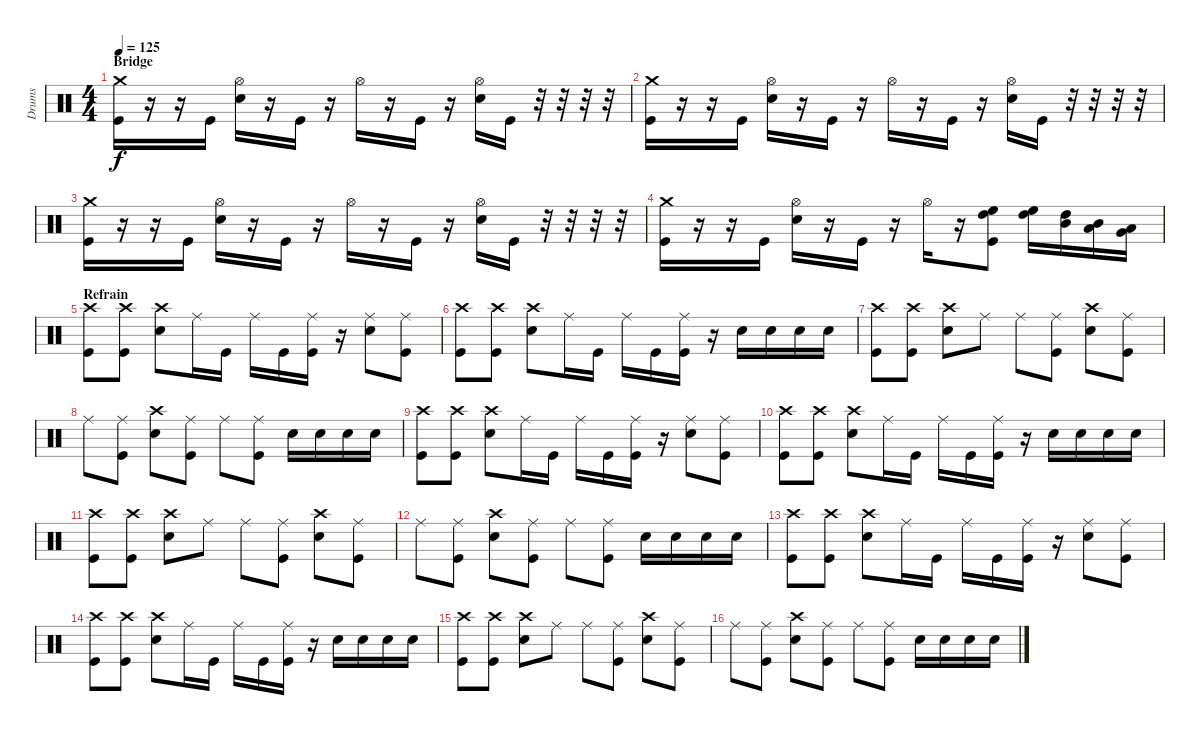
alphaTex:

\track ("Drums" "Drums") {instrument percussion}
\staff {score}
\articulation defaults
\ts (4 4)
\section ("" "Bridge")
\tempo 125
\clef neutral
\ks c
("Kick (hit)" "Crash medium (hit)").16{dy f volume 12} r.16 r.16 "Kick (hit)".16 ("Snare (hit) 2" "Hi-Hat (open)").16 r.16 "Kick (hit)".16 r.16 "Hi-Hat (open)".16 r.16 "Kick (hit)".16 r.16 ("Snare (hit) 2" "Hi-Hat (open)").16 "Kick (hit)".16 r.32 r.32 r.32 r.32 |
("Kick (hit)" "Crash medium (hit)").16 r.16 r.16 "Kick (hit)".16 ("Snare (hit) 2" "Hi-Hat (open)").16 r.16 "Kick (hit)".16 r.16 "Hi-Hat (open)".16 r.16 "Kick (hit)".16 r.16 ("Snare (hit) 2" "Hi-Hat (open)").16 "Kick (hit)".16 r.32 r.32 r.32 r.32 |
("Kick (hit)" "Crash medium (hit)").16 r.16 r.16 "Kick (hit)".16 ("Snare (hit) 2" "Hi-Hat (open)").16 r.16 "Kick (hit)".16 r.16 "Hi-Hat (open)".16 r.16 "Kick (hit)".16 r.16 ("Snare (hit) 2" "Hi-Hat (open)").16 "Kick (hit)".16 r.32 r.32 r.32 r.32 |
("Kick (hit)" "Crash medium (hit)").16 r.16 r.16 "Kick (hit)".16 ("Snare (hit) 2" "Hi-Hat (open)").16 r.16 "Kick (hit)".16 r.16 "Hi-Hat (open)".16 r.16 ("High Floor Tom (hit)" "High Tom (hit)" "Kick (hit)").8 ("High Floor Tom (hit)" "High Tom (hit)").16 ("High Tom (hit)" "Mid Tom (hit)").16 ("Mid Tom (hit)" "Low Tom (hit)").16 ("Low Tom (hit)" "Very Low Tom (hit)").16 |
\section ("" "Refrain")
("Crash high (hit)" "Kick (hit)").8 ("Crash high (hit)" "Kick (hit)").8 ("Snare (hit) 2" "Crash high (hit)").8 "Ride (middle)".16 "Kick (hit)".16 "Ride (middle)".16 "Kick (hit)".16 ("Kick (hit)" "Ride (middle)").16 r.16 ("Snare (hit) 2" "Ride (middle)").8 ("Ride (middle)" "Kick (hit)").8 |
("Crash high (hit)" "Kick (hit)").8 ("Crash high (hit)" "Kick (hit)").8 ("Snare (hit) 2" "Crash high (hit)").8 "Ride (middle)".16 "Kick (hit)".16 "Ride (middle)".16 "Kick (hit)".16 ("Kick (hit)" "Ride (middle)").16 r.16 "Snare (hit) 2".16 "Snare (hit) 2".16 "Snare (hit) 2".16 "Snare (hit) 2".16 |
("Crash high (hit)" "Kick (hit)").8 ("Crash high (hit)" "Kick (hit)").8 ("Snare (hit) 2" "Crash high (hit)").8 "Ride (middle)".8 "Ride (middle)".8 ("Ride (middle)" "Kick (hit)").8 ("Snare (hit) 2" "Crash high (hit)").8 ("Ride (middle)" "Kick (hit)").8 |
"Ride (middle)".8 ("Ride (middle)" "Kick (hit)").8 ("Snare (hit) 2" "Crash high (hit)").8 ("Kick (hit)" "Ride (middle)").8 "Ride (middle)".8 ("Ride (middle)" "Kick (hit)").8 "Snare (hit) 2".16 "Snare (hit) 2".16 "Snare (hit) 2".16 "Snare (hit) 2".16 |
("Crash high (hit)" "Kick (hit)").8 ("Crash high (hit)" "Kick (hit)").8 ("Snare (hit) 2" "Crash high (hit)").8 "Ride (middle)".16 "Kick (hit)".16 "Ride (middle)".16 "Kick (hit)".16 ("Kick (hit)" "Ride (middle)").16 r.16 ("Snare (hit) 2" "Ride (middle)").8 ("Ride (middle)" "Kick (hit)").8 |
("Crash high (hit)" "Kick (hit)").8 ("Crash high (hit)" "Kick (hit)").8 ("Snare (hit) 2" "Crash high (hit)").8 "Ride (middle)".16 "Kick (hit)".16 "Ride (middle)".16 "Kick (hit)".16 ("Kick (hit)" "Ride (middle)").16 r.16 "Snare (hit) 2".16 "Snare (hit) 2".16 "Snare (hit) 2".16 "Snare (hit) 2".16 |
("Crash high (hit)" "Kick (hit)").8 ("Crash high (hit)" "Kick (hit)").8 ("Snare (hit) 2" "Crash high (hit)").8 "Ride (middle)".8 "Ride (middle)".8 ("Ride (middle)" "Kick (hit)").8 ("Snare (hit) 2" "Crash high (hit)").8 ("Ride (middle)" "Kick (hit)").8 |
"Ride (middle)".8 ("Ride (middle)" "Kick (hit)").8 ("Snare (hit) 2" "Crash high (hit)").8 ("Kick (hit)" "Ride (middle)").8 "Ride (middle)".8 ("Ride (middle)" "Kick (hit)").8 "Snare (hit) 2".16 "Snare (hit) 2".16 "Snare (hit) 2".16 "Snare (hit) 2".16 |
("Crash high (hit)" "Kick (hit)").8 ("Crash high (hit)" "Kick (hit)").8 ("Snare (hit) 2" "Crash high (hit)").8 "Ride (middle)".16 "Kick (hit)".16 "Ride (middle)".16 "Kick (hit)".16 ("Kick (hit)" "Ride (middle)").16 r.16 ("Snare (hit) 2" "Ride (middle)").8 ("Ride (middle)" "Kick (hit)").8 |
("Crash high (hit)" "Kick (hit)").8 ("Crash high (hit)" "Kick (hit)").8 ("Snare (hit) 2" "Crash high (hit)").8 "Ride (middle)".16 "Kick (hit)".16 "Ride (middle)".16 "Kick (hit)".16 ("Kick (hit)" "Ride (middle)").16 r.16 "Snare (hit) 2".16 "Snare (hit) 2".16 "Snare (hit) 2".16 "Snare (hit) 2".16 |
("Crash high (hit)" "Kick (hit)").8 ("Crash high (hit)" "Kick (hit)").8 ("Snare (hit) 2" "Crash high (hit)").8 "Ride (middle)".8 "Ride (middle)".8 ("Ride (middle)" "Kick (hit)").8 ("Snare (hit) 2" "Crash high (hit)").8 ("Ride (middle)" "Kick (hit)").8 |
"Ride (middle)".8 ("Ride (middle)" "Kick (hit)").8 ("Snare (hit) 2" "Crash high (hit)").8 ("Kick (hit)" "Ride (middle)").8 "Ride (middle)".8 ("Ride (middle)" "Kick (hit)").8 "Snare (hit) 2".16 "Snare (hit) 2".16 "Snare (hit) 2".16 "Snare (hit) 2".16
